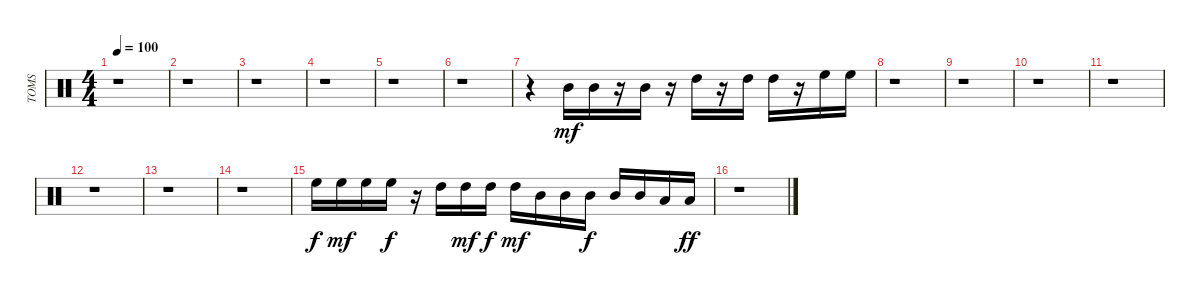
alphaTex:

\track ("TOMS" "TOMS") {instrument percussion}
\staff {score}
\articulation defaults
\ts (4 4)
\tempo 100
\clef neutral
\ks c
r.1{dy f} |
r.1 |
r.1 |
r.1 |
r.1 |
r.1 |
r.4 "Mid Tom (hit)".16{dy mf} "Mid Tom (hit)".16 r.16 "Mid Tom (hit)".16 r.16 "High Tom (hit)".16 r.16 "High Tom (hit)".16 "High Tom (hit)".16 r.16 "High Floor Tom (hit)".16 "High Floor Tom (hit)".16 |
r.1 |
r.1 |
r.1 |
r.1 |
r.1 |
r.1 |
r.1 |
"High Floor Tom (hit)".16{dy f} "High Floor Tom (hit)".16{dy mf} "High Floor Tom (hit)".16 "High Floor Tom (hit)".16{dy f} r.16 "High Tom (hit)".16 "High Tom (hit)".16{dy mf} "High Tom (hit)".16{dy f} "High Tom (hit)".16{dy mf} "Mid Tom (hit)".16 "Mid Tom (hit)".16 "Mid Tom (hit)".16{dy f} "Mid Tom (hit)".16 "Mid Tom (hit)".16 "Low Tom (hit)".16 "Low Tom (hit)".16{dy ff} |
r.1
